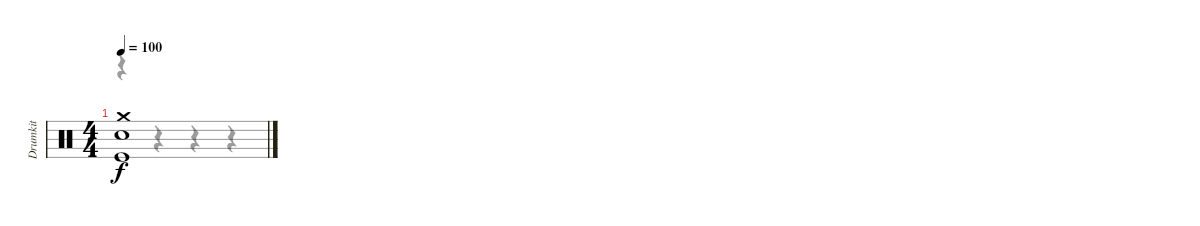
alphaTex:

\track ("Drumkit" "Drumkit") {instrument percussion}
\staff {score}
\articulation defaults
\voice
\ts (4 4)
\tempo 100
\clef neutral
\ks c
("Kick (hit)" "Snare (hit) 2" "Crash medium (hit)").1{dy f}
\voice
\clef neutral
\ottava regular
\simile none
\ks c
r.4{dy f} r.4 r.4 r.4
